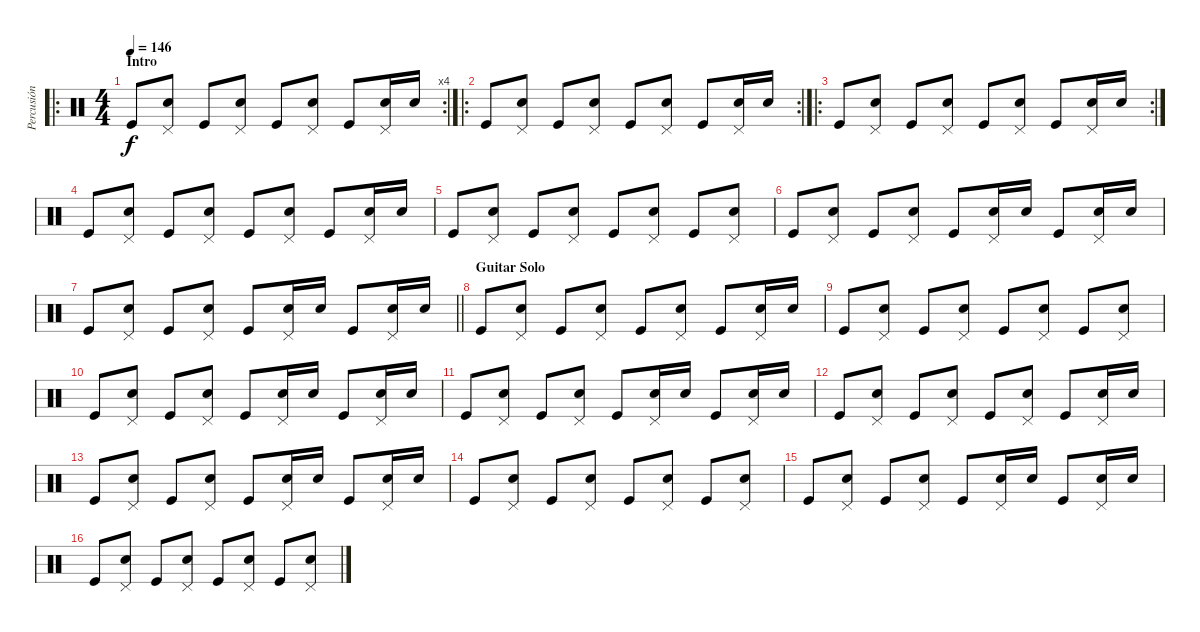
\track ("Percusión" "Percusión") {instrument percussion}
\staff {score}
\articulation defaults
\ro
\rc 4
\ts (4 4)
\section ("" "Intro")
\tempo 146
\clef neutral
\ks c "Kick (hit)".8{dy f}
("Pedal Hi-Hat (hit)" "Snare (hit) 2").8 "Kick (hit)".8 ("Pedal Hi-Hat (hit)" "Snare (hit) 2").8 "Kick (hit)".8 ("Pedal Hi-Hat (hit)" "Snare (hit) 2").8 "Kick (hit)".8 ("Pedal Hi-Hat (hit)" "Snare (hit) 2").16 "Snare (hit) 2".16 |
\ro
\rc 2 "Kick (hit)".8
("Pedal Hi-Hat (hit)" "Snare (hit) 2").8 "Kick (hit)".8 ("Pedal Hi-Hat (hit)" "Snare (hit) 2").8 "Kick (hit)".8 ("Pedal Hi-Hat (hit)" "Snare (hit) 2").8 "Kick (hit)".8 ("Pedal Hi-Hat (hit)" "Snare (hit) 2").16 "Snare (hit) 2".16 |
\ro
\rc 2 "Kick (hit)".8
("Pedal Hi-Hat (hit)" "Snare (hit) 2").8 "Kick (hit)".8 ("Pedal Hi-Hat (hit)" "Snare (hit) 2").8 "Kick (hit)".8 ("Pedal Hi-Hat (hit)" "Snare (hit) 2").8 "Kick (hit)".8 ("Pedal Hi-Hat (hit)" "Snare (hit) 2").16 "Snare (hit) 2".16 |
"Kick (hit)".8 ("Pedal Hi-Hat (hit)" "Snare (hit) 2").8 "Kick (hit)".8 ("Pedal Hi-Hat (hit)" "Snare (hit) 2").8 "Kick (hit)".8 ("Pedal Hi-Hat (hit)" "Snare (hit) 2").8 "Kick (hit)".8 ("Pedal Hi-Hat (hit)" "Snare (hit) 2").16 "Snare (hit) 2".16 |
"Kick (hit)".8 ("Pedal Hi-Hat (hit)" "Snare (hit) 2").8 "Kick (hit)".8 ("Pedal Hi-Hat (hit)" "Snare (hit) 2").8 "Kick (hit)".8 ("Pedal Hi-Hat (hit)" "Snare (hit) 2").8 "Kick (hit)".8 ("Pedal Hi-Hat (hit)" "Snare (hit) 2").8 |
"Kick (hit)".8 ("Pedal Hi-Hat (hit)" "Snare (hit) 2").8 "Kick (hit)".8 ("Pedal Hi-Hat (hit)" "Snare (hit) 2").8 "Kick (hit)".8 ("Pedal Hi-Hat (hit)" "Snare (hit) 2").16 "Snare (hit) 2".16 "Kick (hit)".8 ("Pedal Hi-Hat (hit)" "Snare (hit) 2").16 "Snare (hit) 2".16 |
\barLineRight lightlight "Kick (hit)".8
("Pedal Hi-Hat (hit)" "Snare (hit) 2").8 "Kick (hit)".8 ("Pedal Hi-Hat (hit)" "Snare (hit) 2").8 "Kick (hit)".8 ("Pedal Hi-Hat (hit)" "Snare (hit) 2").16 "Snare (hit) 2".16 "Kick (hit)".8 ("Pedal Hi-Hat (hit)" "Snare (hit) 2").16 "Snare (hit) 2".16 |
\section ("" "Guitar Solo")
"Kick (hit)".8 ("Pedal Hi-Hat (hit)" "Snare (hit) 2").8 "Kick (hit)".8 ("Pedal Hi-Hat (hit)" "Snare (hit) 2").8 "Kick (hit)".8 ("Pedal Hi-Hat (hit)" "Snare (hit) 2").8 "Kick (hit)".8 ("Pedal Hi-Hat (hit)" "Snare (hit) 2").16 "Snare (hit) 2".16 |
"Kick (hit)".8 ("Pedal Hi-Hat (hit)" "Snare (hit) 2").8 "Kick (hit)".8 ("Pedal Hi-Hat (hit)" "Snare (hit) 2").8 "Kick (hit)".8 ("Pedal Hi-Hat (hit)" "Snare (hit) 2").8 "Kick (hit)".8 ("Pedal Hi-Hat (hit)" "Snare (hit) 2").8 |
"Kick (hit)".8 ("Pedal Hi-Hat (hit)" "Snare (hit) 2").8 "Kick (hit)".8 ("Pedal Hi-Hat (hit)" "Snare (hit) 2").8 "Kick (hit)".8 ("Pedal Hi-Hat (hit)" "Snare (hit) 2").16 "Snare (hit) 2".16 "Kick (hit)".8 ("Pedal Hi-Hat (hit)" "Snare (hit) 2").16 "Snare (hit) 2".16 |
"Kick (hit)".8 ("Pedal Hi-Hat (hit)" "Snare (hit) 2").8 "Kick (hit)".8 ("Pedal Hi-Hat (hit)" "Snare (hit) 2").8 "Kick (hit)".8 ("Pedal Hi-Hat (hit)" "Snare (hit) 2").16 "Snare (hit) 2".16 "Kick (hit)".8 ("Pedal Hi-Hat (hit)" "Snare (hit) 2").16 "Snare (hit) 2".16 |
"Kick (hit)".8 ("Pedal Hi-Hat (hit)" "Snare (hit) 2").8 "Kick (hit)".8 ("Pedal Hi-Hat (hit)" "Snare (hit) 2").8 "Kick (hit)".8 ("Pedal Hi-Hat (hit)" "Snare (hit) 2").8 "Kick (hit)".8 ("Pedal Hi-Hat (hit)" "Snare (hit) 2").16 "Snare (hit) 2".16 |
"Kick (hit)".8 ("Pedal Hi-Hat (hit)" "Snare (hit) 2").8 "Kick (hit)".8 ("Pedal Hi-Hat (hit)" "Snare (hit) 2").8 "Kick (hit)".8 ("Pedal Hi-Hat (hit)" "Snare (hit) 2").16 "Snare (hit) 2".16 "Kick (hit)".8 ("Pedal Hi-Hat (hit)" "Snare (hit) 2").16 "Snare (hit) 2".16 |
"Kick (hit)".8 ("Pedal Hi-Hat (hit)" "Snare (hit) 2").8 "Kick (hit)".8 ("Pedal Hi-Hat (hit)" "Snare (hit) 2").8 "Kick (hit)".8 ("Pedal Hi-Hat (hit)" "Snare (hit) 2").8 "Kick (hit)".8 ("Pedal Hi-Hat (hit)" "Snare (hit) 2").8 |
"Kick (hit)".8 ("Pedal Hi-Hat (hit)" "Snare (hit) 2").8 "Kick (hit)".8 ("Pedal Hi-Hat (hit)" "Snare (hit) 2").8 "Kick (hit)".8 ("Pedal Hi-Hat (hit)" "Snare (hit) 2").16 "Snare (hit) 2".16 "Kick (hit)".8 ("Pedal Hi-Hat (hit)" "Snare (hit) 2").16 "Snare (hit) 2".16 |
"Kick (hit)".8 ("Pedal Hi-Hat (hit)" "Snare (hit) 2").8 "Kick (hit)".8 ("Pedal Hi-Hat (hit)" "Snare (hit) 2").8 "Kick (hit)".8 ("Pedal Hi-Hat (hit)" "Snare (hit) 2").8 "Kick (hit)".8 ("Pedal Hi-Hat (hit)" "Snare (hit) 2").8
